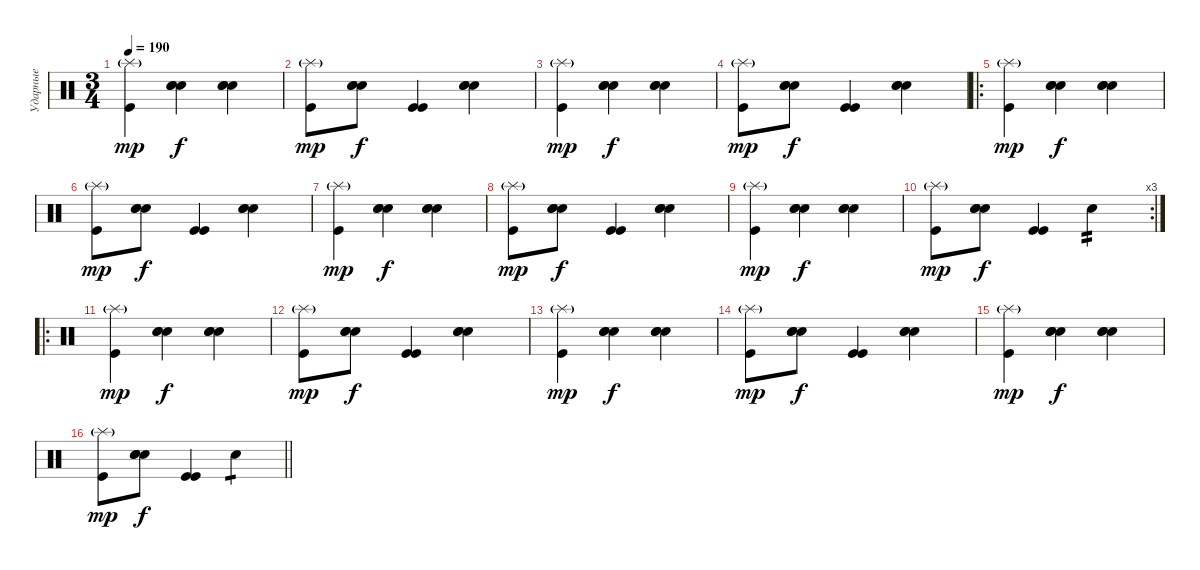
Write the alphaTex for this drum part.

\track ("Ударные" "Ударные") {instrument percussion}
\staff {score}
\articulation defaults
\ts (3 4)
\tempo 190
\clef neutral
\ks c
("Splash (hit)"{g} "Kick (hit)").4{dy mp} ("Snare (hit) 2" "Snare (hit) 2" "Snare (hit) 2").4{dy f} ("Snare (hit) 2" "Snare (hit) 2" "Snare (hit) 2").4 |
("Splash (hit)"{g} "Kick (hit)").8{dy mp} ("Snare (hit) 2" "Snare (hit) 2" "Snare (hit) 2").8{dy f} ("Kick (hit)" "Kick (hit)").4 ("Snare (hit) 2" "Snare (hit) 2" "Snare (hit) 2").4 |
("Splash (hit)"{g} "Kick (hit)").4{dy mp} ("Snare (hit) 2" "Snare (hit) 2" "Snare (hit) 2").4{dy f} ("Snare (hit) 2" "Snare (hit) 2" "Snare (hit) 2").4 |
("Splash (hit)"{g} "Kick (hit)").8{dy mp} ("Snare (hit) 2" "Snare (hit) 2" "Snare (hit) 2").8{dy f} ("Kick (hit)" "Kick (hit)").4 ("Snare (hit) 2" "Snare (hit) 2" "Snare (hit) 2").4 |
\ro
("Splash (hit)"{g} "Kick (hit)").4{dy mp volume 16} ("Snare (hit) 2" "Snare (hit) 2" "Snare (hit) 2").4{dy f} ("Snare (hit) 2" "Snare (hit) 2" "Snare (hit) 2").4 |
("Splash (hit)"{g} "Kick (hit)").8{dy mp} ("Snare (hit) 2" "Snare (hit) 2" "Snare (hit) 2").8{dy f} ("Kick (hit)" "Kick (hit)").4 ("Snare (hit) 2" "Snare (hit) 2" "Snare (hit) 2").4 |
("Splash (hit)"{g} "Kick (hit)").4{dy mp} ("Snare (hit) 2" "Snare (hit) 2" "Snare (hit) 2").4{dy f} ("Snare (hit) 2" "Snare (hit) 2" "Snare (hit) 2").4 |
("Splash (hit)"{g} "Kick (hit)").8{dy mp} ("Snare (hit) 2" "Snare (hit) 2" "Snare (hit) 2").8{dy f} ("Kick (hit)" "Kick (hit)").4 ("Snare (hit) 2" "Snare (hit) 2" "Snare (hit) 2").4 |
("Splash (hit)"{g} "Kick (hit)").4{dy mp} ("Snare (hit) 2" "Snare (hit) 2" "Snare (hit) 2").4{dy f} ("Snare (hit) 2" "Snare (hit) 2" "Snare (hit) 2").4 |
\rc 3
("Splash (hit)"{g} "Kick (hit)").8{dy mp} ("Snare (hit) 2" "Snare (hit) 2" "Snare (hit) 2").8{dy f} ("Kick (hit)" "Kick (hit)").4 "Snare (hit) 2".4{tp 2} |
\ro
("Splash (hit)"{g} "Kick (hit)").4{dy mp} ("Snare (hit) 2" "Snare (hit) 2" "Snare (hit) 2").4{dy f} ("Snare (hit) 2" "Snare (hit) 2" "Snare (hit) 2").4 |
("Splash (hit)"{g} "Kick (hit)").8{dy mp} ("Snare (hit) 2" "Snare (hit) 2" "Snare (hit) 2").8{dy f} ("Kick (hit)" "Kick (hit)").4 ("Snare (hit) 2" "Snare (hit) 2" "Snare (hit) 2").4 |
("Splash (hit)"{g} "Kick (hit)").4{dy mp} ("Snare (hit) 2" "Snare (hit) 2" "Snare (hit) 2").4{dy f} ("Snare (hit) 2" "Snare (hit) 2" "Snare (hit) 2").4 |
("Splash (hit)"{g} "Kick (hit)").8{dy mp} ("Snare (hit) 2" "Snare (hit) 2" "Snare (hit) 2").8{dy f} ("Kick (hit)" "Kick (hit)").4 ("Snare (hit) 2" "Snare (hit) 2" "Snare (hit) 2").4 |
("Splash (hit)"{g} "Kick (hit)").4{dy mp} ("Snare (hit) 2" "Snare (hit) 2" "Snare (hit) 2").4{dy f} ("Snare (hit) 2" "Snare (hit) 2" "Snare (hit) 2").4 |
\barLineRight lightlight
("Splash (hit)"{g} "Kick (hit)").8{dy mp} ("Snare (hit) 2" "Snare (hit) 2" "Snare (hit) 2").8{dy f} ("Kick (hit)" "Kick (hit)").4 "Snare (hit) 2".4{tp 1}
